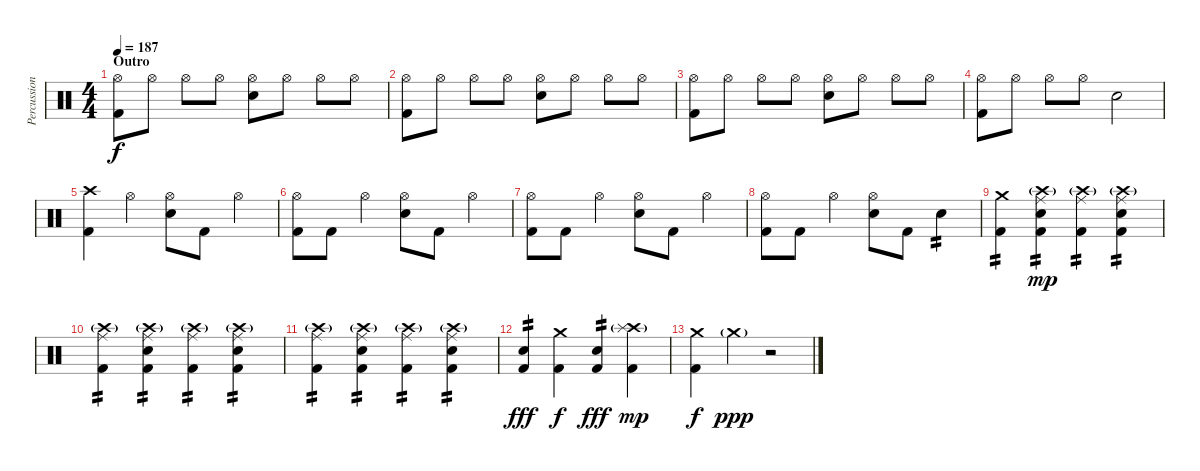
\track ("Percussion" "Percussion") {instrument percussion}
\staff {score}
\articulation defaults
\ts (4 4)
\section ("" "Outro")
\tempo 187
\clef neutral
\ks c
("Hi-Hat (open)" "Kick (hit) 2").8{dy f} "Hi-Hat (open)".8 "Hi-Hat (open)".8 "Hi-Hat (open)".8 ("Hi-Hat (open)" "Electric Snare (hit)").8 "Hi-Hat (open)".8 "Hi-Hat (open)".8 "Hi-Hat (open)".8 |
("Hi-Hat (open)" "Kick (hit) 2").8 "Hi-Hat (open)".8 "Hi-Hat (open)".8 "Hi-Hat (open)".8 ("Hi-Hat (open)" "Electric Snare (hit)").8 "Hi-Hat (open)".8 "Hi-Hat (open)".8 "Hi-Hat (open)".8 |
("Hi-Hat (open)" "Kick (hit) 2").8 "Hi-Hat (open)".8 "Hi-Hat (open)".8 "Hi-Hat (open)".8 ("Hi-Hat (open)" "Electric Snare (hit)").8 "Hi-Hat (open)".8 "Hi-Hat (open)".8 "Hi-Hat (open)".8 |
("Hi-Hat (open)" "Kick (hit) 2").8 "Hi-Hat (open)".8 "Hi-Hat (open)".8 "Hi-Hat (open)".8 "Electric Snare (hit)".2 |
("Crash high (hit)" "Kick (hit) 2").4 "Hi-Hat (open)".4 ("Hi-Hat (open)" "Electric Snare (hit)").8 "Kick (hit) 2".8 "Hi-Hat (open)".4 |
("Hi-Hat (open)" "Kick (hit) 2").8 "Kick (hit) 2".8 "Hi-Hat (open)".4 ("Hi-Hat (open)" "Electric Snare (hit)").8 "Kick (hit) 2".8 "Hi-Hat (open)".4 |
("Hi-Hat (open)" "Kick (hit) 2").8 "Kick (hit) 2".8 "Hi-Hat (open)".4 ("Hi-Hat (open)" "Electric Snare (hit)").8 "Kick (hit) 2".8 "Hi-Hat (open)".4 |
("Hi-Hat (open)" "Kick (hit) 2").8 "Kick (hit) 2".8 "Hi-Hat (open)".4 ("Hi-Hat (open)" "Electric Snare (hit)").8 "Kick (hit) 2".8 "Electric Snare (hit)".4{tp 2} |
("Crash medium (hit)" "Kick (hit) 2").4{tp 2} ("Crash high (hit)"{g} "Ride (middle)" "Electric Snare (hit)" "Kick (hit) 2").4{tp 2 dy mp} ("Crash high (hit)"{g} "Ride (middle)" "Kick (hit) 2").4{tp 2} ("Crash high (hit)"{g} "Ride (middle)" "Electric Snare (hit)" "Kick (hit) 2").4{tp 2} |
("Crash high (hit)"{g} "Ride (middle)" "Kick (hit) 2").4{tp 2} ("Crash high (hit)"{g} "Ride (middle)" "Electric Snare (hit)" "Kick (hit) 2").4{tp 2} ("Crash high (hit)"{g} "Ride (middle)" "Kick (hit) 2").4{tp 2} ("Crash high (hit)"{g} "Ride (middle)" "Electric Snare (hit)" "Kick (hit) 2").4{tp 2} |
("Crash high (hit)"{g} "Ride (middle)" "Kick (hit) 2").4{tp 2} ("Crash high (hit)"{g} "Ride (middle)" "Electric Snare (hit)" "Kick (hit) 2").4{tp 2} ("Crash high (hit)"{g} "Ride (middle)" "Kick (hit) 2").4{tp 2} ("Crash high (hit)"{g} "Ride (middle)" "Electric Snare (hit)" "Kick (hit) 2").4{tp 2} |
("Electric Snare (hit)" "Kick (hit) 2").4{tp 2 dy fff} ("Crash medium (hit)" "Kick (hit) 2").4{dy f} ("Electric Snare (hit)" "Kick (hit) 2").4{tp 2 dy fff} ("Crash high (hit)"{g} "Splash (hit)" "Kick (hit) 2").4{dy mp} |
("Crash medium (hit)" "Kick (hit) 2").4{dy f} "Crash medium (hit)"{g}.4{dy ppp} r.2
